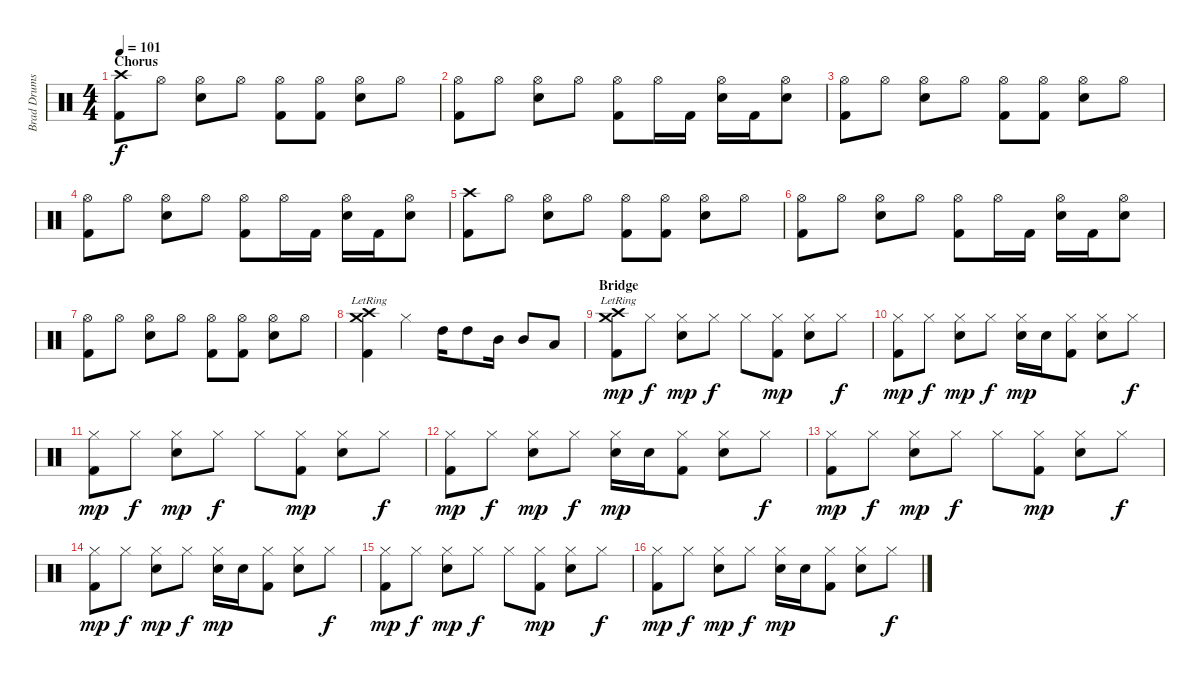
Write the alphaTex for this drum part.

\track ("Brad Drums" "Brad Drums") {instrument percussion}
\staff {score}
\articulation defaults
\ts (4 4)
\section ("" "Chorus")
\tempo 101
\clef neutral
\ks c
("Crash high (hit)" "Kick (hit) 2").8{dy f} "Hi-Hat (open)".8 ("Hi-Hat (open)" "Electric Snare (hit)").8 "Hi-Hat (open)".8 ("Hi-Hat (open)" "Kick (hit) 2").8 ("Hi-Hat (open)" "Kick (hit) 2").8 ("Hi-Hat (open)" "Electric Snare (hit)").8 "Hi-Hat (open)".8 |
("Hi-Hat (open)" "Kick (hit) 2").8 "Hi-Hat (open)".8 ("Hi-Hat (open)" "Electric Snare (hit)").8 "Hi-Hat (open)".8 ("Hi-Hat (open)" "Kick (hit) 2").8 "Hi-Hat (open)".16 "Kick (hit) 2".16 ("Hi-Hat (open)" "Electric Snare (hit)").16 "Kick (hit) 2".16 ("Hi-Hat (open)" "Electric Snare (hit)").8 |
("Hi-Hat (open)" "Kick (hit) 2").8 "Hi-Hat (open)".8 ("Hi-Hat (open)" "Electric Snare (hit)").8 "Hi-Hat (open)".8 ("Hi-Hat (open)" "Kick (hit) 2").8 ("Hi-Hat (open)" "Kick (hit) 2").8 ("Hi-Hat (open)" "Electric Snare (hit)").8 "Hi-Hat (open)".8 |
("Hi-Hat (open)" "Kick (hit) 2").8 "Hi-Hat (open)".8 ("Hi-Hat (open)" "Electric Snare (hit)").8 "Hi-Hat (open)".8 ("Hi-Hat (open)" "Kick (hit) 2").8 "Hi-Hat (open)".16 "Kick (hit) 2".16 ("Hi-Hat (open)" "Electric Snare (hit)").16 "Kick (hit) 2".16 ("Hi-Hat (open)" "Electric Snare (hit)").8 |
("Crash high (hit)" "Kick (hit) 2").8 "Hi-Hat (open)".8 ("Hi-Hat (open)" "Electric Snare (hit)").8 "Hi-Hat (open)".8 ("Hi-Hat (open)" "Kick (hit) 2").8 ("Hi-Hat (open)" "Kick (hit) 2").8 ("Hi-Hat (open)" "Electric Snare (hit)").8 "Hi-Hat (open)".8 |
("Hi-Hat (open)" "Kick (hit) 2").8 "Hi-Hat (open)".8 ("Hi-Hat (open)" "Electric Snare (hit)").8 "Hi-Hat (open)".8 ("Hi-Hat (open)" "Kick (hit) 2").8 "Hi-Hat (open)".16 "Kick (hit) 2".16 ("Hi-Hat (open)" "Electric Snare (hit)").16 "Kick (hit) 2".16 ("Hi-Hat (open)" "Electric Snare (hit)").8 |
("Hi-Hat (open)" "Kick (hit) 2").8 "Hi-Hat (open)".8 ("Hi-Hat (open)" "Electric Snare (hit)").8 "Hi-Hat (open)".8 ("Hi-Hat (open)" "Kick (hit) 2").8 ("Hi-Hat (open)" "Kick (hit) 2").8 ("Hi-Hat (open)" "Electric Snare (hit)").8 "Hi-Hat (open)".8 |
("Crash high (hit)"{lr} "Crash medium (hit)"{lr} "Kick (hit) 2").4 "Hi-Hat (closed)".4 "High Tom (hit)".16 "High Tom (hit)".8 "Mid Tom (hit)".16 "Mid Tom (hit)".8 "Low Tom (hit)".8 |
\section ("" "Bridge")
("Crash high (hit)"{lr} "Crash medium (hit)"{lr} "Kick (hit) 2").8{dy mp} "Hi-Hat (closed)".8{dy f} ("Hi-Hat (closed)" "Snare (hit) 2").8{dy mp} "Hi-Hat (closed)".8{dy f} "Hi-Hat (closed)".8 ("Hi-Hat (closed)" "Kick (hit) 2").8{dy mp} ("Hi-Hat (closed)" "Snare (hit) 2").8 "Hi-Hat (closed)".8{dy f} |
("Hi-Hat (closed)" "Kick (hit) 2").8{dy mp} "Hi-Hat (closed)".8{dy f} ("Hi-Hat (closed)" "Snare (hit) 2").8{dy mp} "Hi-Hat (closed)".8{dy f} ("Hi-Hat (closed)" "Snare (hit) 2").16{dy mp} "Snare (hit) 2".16 ("Hi-Hat (closed)" "Kick (hit) 2").8 ("Hi-Hat (closed)" "Snare (hit) 2").8 "Hi-Hat (closed)".8{dy f} |
("Hi-Hat (closed)" "Kick (hit) 2").8{dy mp} "Hi-Hat (closed)".8{dy f} ("Hi-Hat (closed)" "Snare (hit) 2").8{dy mp} "Hi-Hat (closed)".8{dy f} "Hi-Hat (closed)".8 ("Hi-Hat (closed)" "Kick (hit) 2").8{dy mp} ("Hi-Hat (closed)" "Snare (hit) 2").8 "Hi-Hat (closed)".8{dy f} |
("Hi-Hat (closed)" "Kick (hit) 2").8{dy mp} "Hi-Hat (closed)".8{dy f} ("Hi-Hat (closed)" "Snare (hit) 2").8{dy mp} "Hi-Hat (closed)".8{dy f} ("Hi-Hat (closed)" "Snare (hit) 2").16{dy mp} "Snare (hit) 2".16 ("Hi-Hat (closed)" "Kick (hit) 2").8 ("Hi-Hat (closed)" "Snare (hit) 2").8 "Hi-Hat (closed)".8{dy f} |
("Hi-Hat (closed)" "Kick (hit) 2").8{dy mp} "Hi-Hat (closed)".8{dy f} ("Hi-Hat (closed)" "Snare (hit) 2").8{dy mp} "Hi-Hat (closed)".8{dy f} "Hi-Hat (closed)".8 ("Hi-Hat (closed)" "Kick (hit) 2").8{dy mp} ("Hi-Hat (closed)" "Snare (hit) 2").8 "Hi-Hat (closed)".8{dy f} |
("Hi-Hat (closed)" "Kick (hit) 2").8{dy mp} "Hi-Hat (closed)".8{dy f} ("Hi-Hat (closed)" "Snare (hit) 2").8{dy mp} "Hi-Hat (closed)".8{dy f} ("Hi-Hat (closed)" "Snare (hit) 2").16{dy mp} "Snare (hit) 2".16 ("Hi-Hat (closed)" "Kick (hit) 2").8 ("Hi-Hat (closed)" "Snare (hit) 2").8 "Hi-Hat (closed)".8{dy f} |
("Hi-Hat (closed)" "Kick (hit) 2").8{dy mp} "Hi-Hat (closed)".8{dy f} ("Hi-Hat (closed)" "Snare (hit) 2").8{dy mp} "Hi-Hat (closed)".8{dy f} "Hi-Hat (closed)".8 ("Hi-Hat (closed)" "Kick (hit) 2").8{dy mp} ("Hi-Hat (closed)" "Snare (hit) 2").8 "Hi-Hat (closed)".8{dy f} |
("Hi-Hat (closed)" "Kick (hit) 2").8{dy mp} "Hi-Hat (closed)".8{dy f} ("Hi-Hat (closed)" "Snare (hit) 2").8{dy mp} "Hi-Hat (closed)".8{dy f} ("Hi-Hat (closed)" "Snare (hit) 2").16{dy mp} "Snare (hit) 2".16 ("Hi-Hat (closed)" "Kick (hit) 2").8 ("Hi-Hat (closed)" "Snare (hit) 2").8 "Hi-Hat (closed)".8{dy f}
